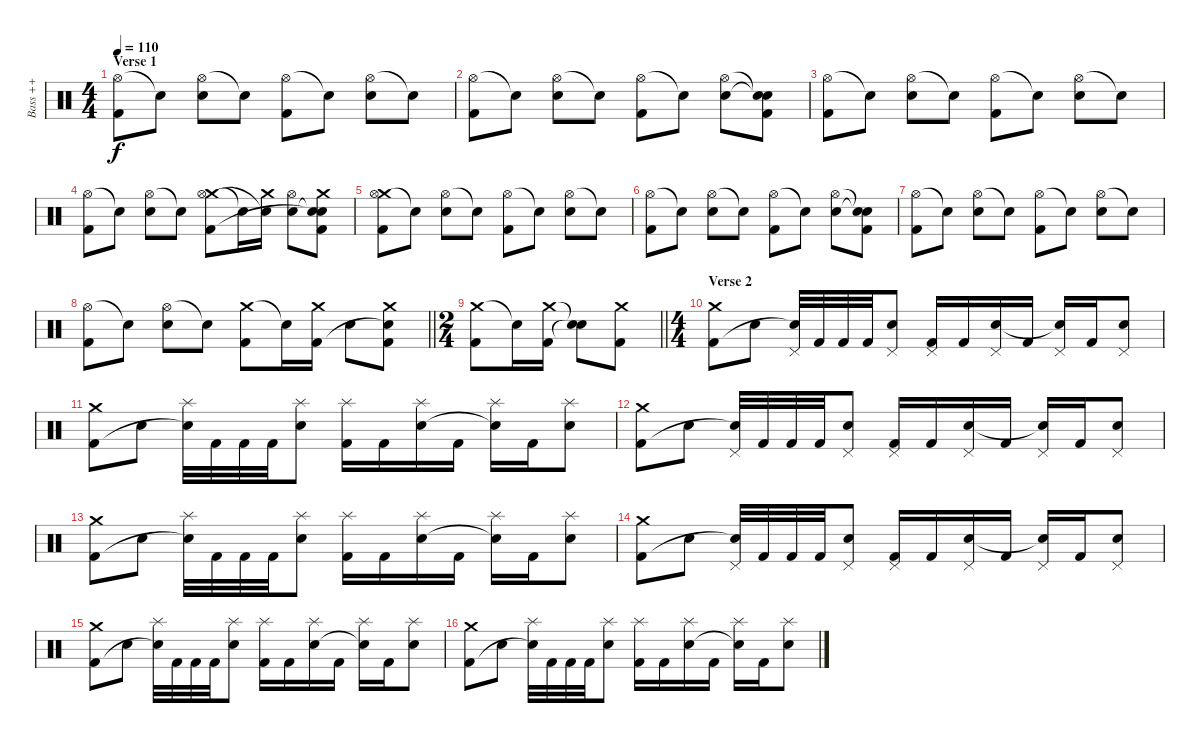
\track ("  Bass ++" "  Bass ++") {instrument percussion}
\staff {score}
\articulation defaults
\ts (4 4)
\section ("" "Verse 1")
\tempo 110
\clef neutral
\ks c
("Hi-Hat (open)" "Kick (hit) 2").8{dy f} "Snare (hit)"{t}.8 ("Hi-Hat (open)" "Snare (hit) 2").8 "Snare (hit)"{t}.8 ("Hi-Hat (open)" "Kick (hit) 2").8 "Snare (hit)"{t}.8 ("Hi-Hat (open)" "Snare (hit) 2").8 "Snare (hit)"{t}.8 |
("Hi-Hat (open)" "Kick (hit) 2").8 "Snare (hit)"{t}.8 ("Hi-Hat (open)" "Snare (hit) 2").8 "Snare (hit)"{t}.8 ("Hi-Hat (open)" "Kick (hit) 2").8 "Snare (hit)"{t}.8 ("Hi-Hat (open)" "Snare (hit) 2").8 ("Snare (hit)"{t} "Snare (hit)"{t} "Kick (hit) 2").8 |
("Hi-Hat (open)" "Kick (hit) 2").8 "Snare (hit)"{t}.8 ("Hi-Hat (open)" "Snare (hit) 2").8 "Snare (hit)"{t}.8 ("Hi-Hat (open)" "Kick (hit) 2").8 "Snare (hit)"{t}.8 ("Hi-Hat (open)" "Snare (hit) 2").8 "Snare (hit)"{t}.8 |
("Hi-Hat (open)" "Kick (hit) 2").8 "Snare (hit)"{t}.8 ("Hi-Hat (open)" "Snare (hit) 2").8 "Snare (hit)"{t}.8 ("Crash medium (hit)" "Hi-Hat (open)" "Kick (hit) 2").8 "Snare (hit)"{t}.16 ("Crash medium (hit)" "Snare (hit)"{t}).16 ("Hi-Hat (open)" "Snare (hit) 2").8 ("Crash medium (hit)" "Snare (hit)"{t} "Snare (hit)"{t} "Kick (hit) 2").8 |
("Crash medium (hit)" "Hi-Hat (open)" "Kick (hit) 2").8 "Snare (hit)"{t}.8 ("Hi-Hat (open)" "Snare (hit) 2").8 "Snare (hit)"{t}.8 ("Hi-Hat (open)" "Kick (hit) 2").8 "Snare (hit)"{t}.8 ("Hi-Hat (open)" "Snare (hit) 2").8 "Snare (hit)"{t}.8 |
("Hi-Hat (open)" "Kick (hit) 2").8 "Snare (hit)"{t}.8 ("Hi-Hat (open)" "Snare (hit) 2").8 "Snare (hit)"{t}.8 ("Hi-Hat (open)" "Kick (hit) 2").8 "Snare (hit)"{t}.8 ("Hi-Hat (open)" "Snare (hit) 2").8 ("Snare (hit)"{t} "Snare (hit)"{t} "Kick (hit) 2").8 |
("Hi-Hat (open)" "Kick (hit) 2").8 "Snare (hit)"{t}.8 ("Hi-Hat (open)" "Snare (hit) 2").8 "Snare (hit)"{t}.8 ("Hi-Hat (open)" "Kick (hit) 2").8 "Snare (hit)"{t}.8 ("Hi-Hat (open)" "Snare (hit) 2").8 "Snare (hit)"{t}.8 |
\barLineRight lightlight
("Hi-Hat (open)" "Kick (hit) 2").8 "Snare (hit)"{t}.8 ("Hi-Hat (open)" "Snare (hit) 2").8 "Snare (hit)"{t}.8 ("Crash medium (hit)" "Kick (hit) 2").8 "Snare (hit)"{t}.16 ("Crash medium (hit)" "Kick (hit) 2").16 "Snare (hit) 2".8 ("Crash medium (hit)" "Snare (hit)"{t} "Kick (hit) 2").8 |
\ts (2 4)
\barLineRight lightlight
("Crash medium (hit)" "Kick (hit) 2").8 "Snare (hit)"{t}.16 ("Crash medium (hit)" "Kick (hit) 2").16 ("Snare (hit)"{t} "Snare (hit)"{t}).8 ("Crash medium (hit)" "Kick (hit) 2").8 |
\ts (4 4)
\section ("" "Verse 2")
("Crash medium (hit)" "Kick (hit) 2").8 "Snare (hit) 2".8 ("Pedal Hi-Hat (hit)" "Snare (hit)"{t}).32 "Kick (hit) 2".32 "Kick (hit) 2".32 "Kick (hit) 2".32 ("Pedal Hi-Hat (hit)" "Snare (hit) 2").8 ("Pedal Hi-Hat (hit)" "Kick (hit) 2").16 "Kick (hit) 2".16 ("Pedal Hi-Hat (hit)" "Snare (hit) 2").16 "Kick (hit) 2".16 ("Pedal Hi-Hat (hit)" "Snare (hit)"{t}).16 "Kick (hit) 2".16 ("Pedal Hi-Hat (hit)" "Snare (hit) 2").8 |
("Crash medium (hit)" "Kick (hit) 2").8 "Snare (hit) 2".8 ("Splash (hit)" "Snare (hit)"{t}).32 "Kick (hit) 2".32 "Kick (hit) 2".32 "Kick (hit) 2".32 ("Splash (hit)" "Snare (hit) 2").8 ("Splash (hit)" "Kick (hit) 2").16 "Kick (hit) 2".16 ("Splash (hit)" "Snare (hit) 2").16 "Kick (hit) 2".16 ("Splash (hit)" "Snare (hit)"{t}).16 "Kick (hit) 2".16 ("Splash (hit)" "Snare (hit) 2").8 |
("Crash medium (hit)" "Kick (hit) 2").8 "Snare (hit) 2".8 ("Pedal Hi-Hat (hit)" "Snare (hit)"{t}).32 "Kick (hit) 2".32 "Kick (hit) 2".32 "Kick (hit) 2".32 ("Pedal Hi-Hat (hit)" "Snare (hit) 2").8 ("Pedal Hi-Hat (hit)" "Kick (hit) 2").16 "Kick (hit) 2".16 ("Pedal Hi-Hat (hit)" "Snare (hit) 2").16 "Kick (hit) 2".16 ("Pedal Hi-Hat (hit)" "Snare (hit)"{t}).16 "Kick (hit) 2".16 ("Pedal Hi-Hat (hit)" "Snare (hit) 2").8 |
("Crash medium (hit)" "Kick (hit) 2").8 "Snare (hit) 2".8 ("Splash (hit)" "Snare (hit)"{t}).32 "Kick (hit) 2".32 "Kick (hit) 2".32 "Kick (hit) 2".32 ("Splash (hit)" "Snare (hit) 2").8 ("Splash (hit)" "Kick (hit) 2").16 "Kick (hit) 2".16 ("Splash (hit)" "Snare (hit) 2").16 "Kick (hit) 2".16 ("Splash (hit)" "Snare (hit)"{t}).16 "Kick (hit) 2".16 ("Splash (hit)" "Snare (hit) 2").8 |
("Crash medium (hit)" "Kick (hit) 2").8 "Snare (hit) 2".8 ("Pedal Hi-Hat (hit)" "Snare (hit)"{t}).32 "Kick (hit) 2".32 "Kick (hit) 2".32 "Kick (hit) 2".32 ("Pedal Hi-Hat (hit)" "Snare (hit) 2").8 ("Pedal Hi-Hat (hit)" "Kick (hit) 2").16 "Kick (hit) 2".16 ("Pedal Hi-Hat (hit)" "Snare (hit) 2").16 "Kick (hit) 2".16 ("Pedal Hi-Hat (hit)" "Snare (hit)"{t}).16 "Kick (hit) 2".16 ("Pedal Hi-Hat (hit)" "Snare (hit) 2").8 |
("Crash medium (hit)" "Kick (hit) 2").8 "Snare (hit) 2".8 ("Splash (hit)" "Snare (hit)"{t}).32 "Kick (hit) 2".32 "Kick (hit) 2".32 "Kick (hit) 2".32 ("Splash (hit)" "Snare (hit) 2").8 ("Splash (hit)" "Kick (hit) 2").16 "Kick (hit) 2".16 ("Splash (hit)" "Snare (hit) 2").16 "Kick (hit) 2".16 ("Splash (hit)" "Snare (hit)"{t}).16 "Kick (hit) 2".16 ("Splash (hit)" "Snare (hit) 2").8 |
("Crash medium (hit)" "Kick (hit) 2").8 "Snare (hit) 2".8 ("Splash (hit)" "Snare (hit)"{t}).32 "Kick (hit) 2".32 "Kick (hit) 2".32 "Kick (hit) 2".32 ("Splash (hit)" "Snare (hit) 2").8 ("Splash (hit)" "Kick (hit) 2").16 "Kick (hit) 2".16 ("Splash (hit)" "Snare (hit) 2").16 "Kick (hit) 2".16 ("Splash (hit)" "Snare (hit)"{t}).16 "Kick (hit) 2".16 ("Splash (hit)" "Snare (hit) 2").8
